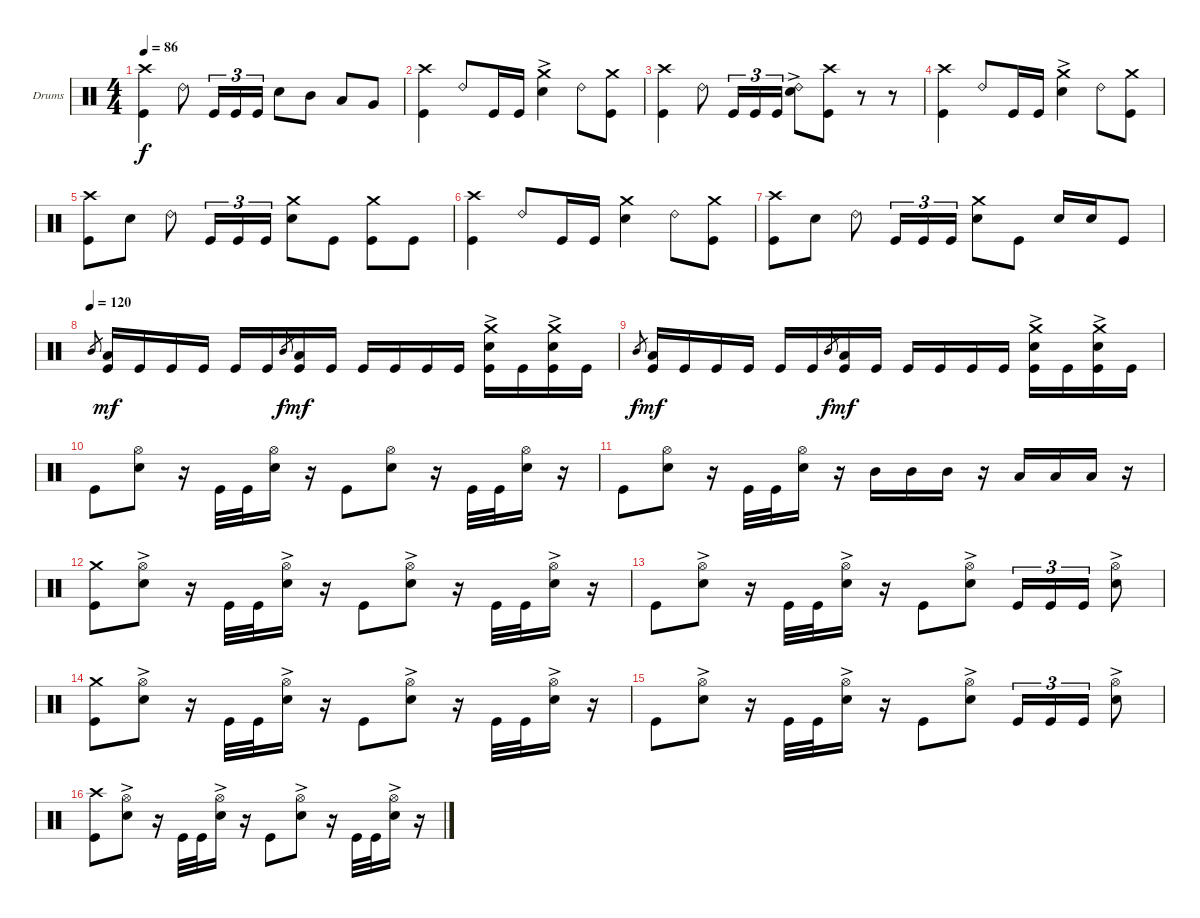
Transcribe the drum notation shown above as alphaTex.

\defaultSystemsLayout 4
\bracketExtendMode groupsimilarinstruments
\firstSystemTrackNameOrientation horizontal
\otherSystemsTrackNameOrientation horizontal
\track ("Drumkit" "Drums") {instrument percussion}
\staff {score}
\articulation defaults
\ts (4 4)
\tempo 86
\clef neutral
\scale
0.324484
\ks c
("Kick (hit)" "Crash high (hit)").4{dy f} "Ride (bell) 2".8 "Kick (hit)".16{tu (3 2)} "Kick (hit)".16{tu (3 2)} "Kick (hit)".16{tu (3 2)} "Snare (hit) 2".8 "Mid Tom (hit)".8 "Low Tom (hit)".8 "Very Low Tom (hit)".8 |
\scale
0.3 ("Kick (hit)" "Crash high (hit)").4 "Ride (bell) 2".8 "Kick (hit)".16 "Kick (hit)".16 ("Snare (hit) 2"{ac} "Crash medium (hit)").4 "Ride (bell) 2".8 ("Kick (hit)" "Crash medium (hit)").8 |
\scale
0.4 ("Kick (hit)" "Crash high (hit)").4 "Ride (bell) 2".8 "Kick (hit)".16{tu (3 2)} "Kick (hit)".16{tu (3 2)} "Kick (hit)".16{tu (3 2)} ("Ride (bell) 2" "Snare (hit) 2"{ac}).8 ("Kick (hit)" "Crash high (hit)").8 r.8 r.8 |
\scale
0.3 ("Kick (hit)" "Crash high (hit)").4 "Ride (bell) 2".8 "Kick (hit)".16 "Kick (hit)".16 ("Snare (hit) 2"{ac} "Crash medium (hit)").4 "Ride (bell) 2".8 ("Kick (hit)" "Crash medium (hit)").8 |
\scale
0.363919 ("Kick (hit)" "Crash high (hit)").8 "Snare (hit) 2".8 "Ride (bell) 2".8 "Kick (hit)".16{tu (3 2)} "Kick (hit)".16{tu (3 2)} "Kick (hit)".16{tu (3 2)} ("Snare (hit) 2" "Crash medium (hit)").8 "Kick (hit)".8 ("Kick (hit)" "Crash medium (hit)").8 "Kick (hit)".8 |
\scale
0.25661 ("Kick (hit)" "Crash high (hit)").4 "Ride (bell) 2".8 "Kick (hit)".16 "Kick (hit)".16 ("Snare (hit) 2" "Crash medium (hit)").4 "Ride (bell) 2".8 ("Kick (hit)" "Crash medium (hit)").8 |
\scale
0.379471 ("Kick (hit)" "Crash high (hit)").8 "Snare (hit) 2".8 "Ride (bell) 2".8 "Kick (hit)".16{tu (3 2)} "Kick (hit)".16{tu (3 2)} "Kick (hit)".16{tu (3 2)} ("Snare (hit) 2" "Crash medium (hit)").8 "Kick (hit)".8 "Snare (hit) 2".16 "Snare (hit) 2".16 "Kick (hit)".8 |
\tempo 120
\scale
0.342308 "Mid Tom (hit)".8{gr} ("Kick (hit)" "Low Tom (hit)").16{dy mf} "Kick (hit)".16 "Kick (hit)".16 "Kick (hit)".16 "Kick (hit)".16 "Kick (hit)".16 "Mid Tom (hit)".8{gr dy f} ("Kick (hit)" "Low Tom (hit)").16{dy mf} "Kick (hit)".16 "Kick (hit)".16 "Kick (hit)".16 "Kick (hit)".16 "Kick (hit)".16 ("Kick (hit)" "Snare (hit) 2"{ac} "Crash medium (hit)").16 "Kick (hit)".16 ("Kick (hit)" "Snare (hit) 2"{ac} "Crash medium (hit)").16 "Kick (hit)".16 |
\scale
0.342308 "Mid Tom (hit)".8{gr dy f} ("Kick (hit)" "Low Tom (hit)").16{dy mf} "Kick (hit)".16 "Kick (hit)".16 "Kick (hit)".16 "Kick (hit)".16 "Kick (hit)".16 "Mid Tom (hit)".8{gr dy f} ("Kick (hit)" "Low Tom (hit)").16{dy mf} "Kick (hit)".16 "Kick (hit)".16 "Kick (hit)".16 "Kick (hit)".16 "Kick (hit)".16 ("Kick (hit)" "Snare (hit) 2"{ac} "Crash medium (hit)").16 "Kick (hit)".16 ("Kick (hit)" "Snare (hit) 2"{ac} "Crash medium (hit)").16 "Kick (hit)".16 |
\scale
0.315385 "Kick (hit)".8 ("Snare (hit) 2" "Hi-Hat (open)").8 r.16 "Kick (hit)".32 "Kick (hit)".32 ("Snare (hit) 2" "Hi-Hat (open)").16 r.16 "Kick (hit)".8 ("Snare (hit) 2" "Hi-Hat (open)").8 r.16 "Kick (hit)".32 "Kick (hit)".32 ("Snare (hit) 2" "Hi-Hat (open)").16 r.16 |
\scale
0.345528 "Kick (hit)".8 ("Snare (hit) 2" "Hi-Hat (open)").8 r.16 "Kick (hit)".32 "Kick (hit)".32 ("Snare (hit) 2" "Hi-Hat (open)").16 r.16 "Mid Tom (hit)".16 "Mid Tom (hit)".16 "Mid Tom (hit)".16 r.16 "Low Tom (hit)".16 "Low Tom (hit)".16 "Low Tom (hit)".16 r.16 |
\scale
0.333333 ("Kick (hit)" "Crash medium (hit)").8 ("Snare (hit) 2"{ac} "Hi-Hat (open)").8 r.16 "Kick (hit)".32 "Kick (hit)".32 ("Snare (hit) 2"{ac} "Hi-Hat (open)").16 r.16 "Kick (hit)".8 ("Snare (hit) 2"{ac} "Hi-Hat (open)").8 r.16 "Kick (hit)".32 "Kick (hit)".32 ("Snare (hit) 2"{ac} "Hi-Hat (open)").16 r.16 |
\scale
0.321138 "Kick (hit)".8 ("Snare (hit) 2"{ac} "Hi-Hat (open)").8 r.16 "Kick (hit)".32 "Kick (hit)".32 ("Snare (hit) 2"{ac} "Hi-Hat (open)").16 r.16 "Kick (hit)".8 ("Snare (hit) 2"{ac} "Hi-Hat (open)").8 "Kick (hit)".16{tu (3 2)} "Kick (hit)".16{tu (3 2)} "Kick (hit)".16{tu (3 2)} ("Snare (hit) 2"{ac} "Hi-Hat (open)").8 |
\scale
0.337449 ("Kick (hit)" "Crash medium (hit)").8 ("Snare (hit) 2"{ac} "Hi-Hat (open)").8 r.16 "Kick (hit)".32 "Kick (hit)".32 ("Snare (hit) 2"{ac} "Hi-Hat (open)").16 r.16 "Kick (hit)".8 ("Snare (hit) 2"{ac} "Hi-Hat (open)").8 r.16 "Kick (hit)".32 "Kick (hit)".32 ("Snare (hit) 2"{ac} "Hi-Hat (open)").16 r.16 |
\scale
0.325103 "Kick (hit)".8 ("Snare (hit) 2"{ac} "Hi-Hat (open)").8 r.16 "Kick (hit)".32 "Kick (hit)".32 ("Snare (hit) 2"{ac} "Hi-Hat (open)").16 r.16 "Kick (hit)".8 ("Snare (hit) 2"{ac} "Hi-Hat (open)").8 "Kick (hit)".16{tu (3 2)} "Kick (hit)".16{tu (3 2)} "Kick (hit)".16{tu (3 2)} ("Snare (hit) 2"{ac} "Hi-Hat (open)").8 |
\scale
0.337449 ("Kick (hit)" "Crash high (hit)").8 ("Snare (hit) 2"{ac} "Hi-Hat (open)").8 r.16 "Kick (hit)".32 "Kick (hit)".32 ("Snare (hit) 2"{ac} "Hi-Hat (open)").16 r.16 "Kick (hit)".8 ("Snare (hit) 2"{ac} "Hi-Hat (open)").8 r.16 "Kick (hit)".32 "Kick (hit)".32 ("Snare (hit) 2"{ac} "Hi-Hat (open)").16 r.16
